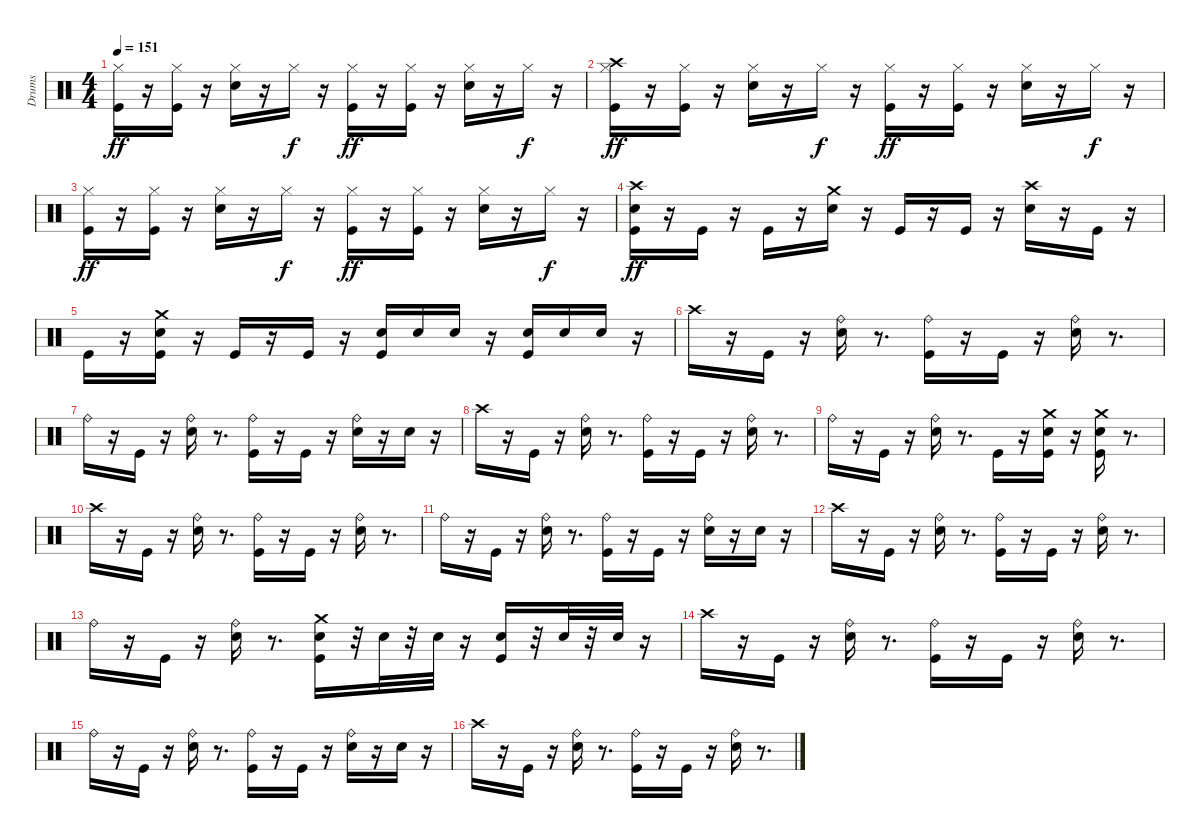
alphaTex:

\track ("Drums" "Drums") {instrument percussion}
\staff {score}
\articulation defaults
\ts (4 4)
\tempo 151
\clef neutral
\ks c
("Kick (hit)" "Hi-Hat (closed)").16{dy ff} r.16 ("Kick (hit)" "Hi-Hat (closed)").16 r.16 ("Snare (hit) 2" "Hi-Hat (closed)").16 r.16 "Hi-Hat (closed)".16{dy f} r.16 ("Kick (hit)" "Hi-Hat (closed)").16{dy ff} r.16 ("Kick (hit)" "Hi-Hat (closed)").16 r.16 ("Snare (hit) 2" "Hi-Hat (closed)").16 r.16 "Hi-Hat (closed)".16{dy f} r.16 |
("Kick (hit)" "Hi-Hat (closed)" "Crash high (hit)").16{dy ff} r.16 ("Kick (hit)" "Hi-Hat (closed)").16 r.16 ("Snare (hit) 2" "Hi-Hat (closed)").16 r.16 "Hi-Hat (closed)".16{dy f} r.16 ("Kick (hit)" "Hi-Hat (closed)").16{dy ff} r.16 ("Kick (hit)" "Hi-Hat (closed)").16 r.16 ("Snare (hit) 2" "Hi-Hat (closed)").16 r.16 "Hi-Hat (closed)".16{dy f} r.16 |
("Kick (hit)" "Hi-Hat (closed)").16{dy ff} r.16 ("Kick (hit)" "Hi-Hat (closed)").16 r.16 ("Snare (hit) 2" "Hi-Hat (closed)").16 r.16 "Hi-Hat (closed)".16{dy f} r.16 ("Kick (hit)" "Hi-Hat (closed)").16{dy ff} r.16 ("Kick (hit)" "Hi-Hat (closed)").16 r.16 ("Snare (hit) 2" "Hi-Hat (closed)").16 r.16 "Hi-Hat (closed)".16{dy f} r.16 |
("Kick (hit)" "Snare (hit) 2" "Crash high (hit)").16{dy ff} r.16 "Kick (hit)".16 r.16 "Kick (hit)".16 r.16 ("Snare (hit) 2" "Crash medium (hit)").16 r.16 "Kick (hit)".16 r.16 "Kick (hit)".16 r.16 ("Snare (hit) 2" "Crash high (hit)").16 r.16 "Kick (hit)".16 r.16 |
"Kick (hit)".16 r.16 ("Kick (hit)" "Snare (hit) 2" "Crash medium (hit)").16 r.16 "Kick (hit)".16 r.16 "Kick (hit)".16 r.16 ("Kick (hit)" "Snare (hit) 2").16 "Snare (hit) 2".16 "Snare (hit) 2".16 r.16 ("Kick (hit)" "Snare (hit) 2").16 "Snare (hit) 2".16 "Snare (hit) 2".16 r.16 |
"Crash high (hit)".16 r.16 "Kick (hit)".16 r.16 ("Snare (hit) 2" "Ride (bell)").16 r.8{d} ("Kick (hit)" "Ride (bell)").16 r.16 "Kick (hit)".16 r.16 ("Snare (hit) 2" "Ride (bell)").16 r.8{d} |
"Ride (bell)".16 r.16 "Kick (hit)".16 r.16 ("Snare (hit) 2" "Ride (bell)").16 r.8{d} ("Kick (hit)" "Ride (bell)").16 r.16 "Kick (hit)".16 r.16 ("Snare (hit) 2" "Ride (bell)").16 r.16 "Snare (hit) 2".16 r.16 |
"Crash high (hit)".16 r.16 "Kick (hit)".16 r.16 ("Snare (hit) 2" "Ride (bell)").16 r.8{d} ("Kick (hit)" "Ride (bell)").16 r.16 "Kick (hit)".16 r.16 ("Snare (hit) 2" "Ride (bell)").16 r.8{d} |
"Ride (bell)".16 r.16 "Kick (hit)".16 r.16 ("Snare (hit) 2" "Ride (bell)").16 r.8{d} "Kick (hit)".16 r.16 ("Kick (hit)" "Snare (hit) 2" "Crash medium (hit)").16 r.16 ("Kick (hit)" "Snare (hit) 2" "Crash medium (hit)").16 r.8{d} |
"Crash high (hit)".16 r.16 "Kick (hit)".16 r.16 ("Snare (hit) 2" "Ride (bell)").16 r.8{d} ("Kick (hit)" "Ride (bell)").16 r.16 "Kick (hit)".16 r.16 ("Snare (hit) 2" "Ride (bell)").16 r.8{d} |
"Ride (bell)".16 r.16 "Kick (hit)".16 r.16 ("Snare (hit) 2" "Ride (bell)").16 r.8{d} ("Kick (hit)" "Ride (bell)").16 r.16 "Kick (hit)".16 r.16 ("Snare (hit) 2" "Ride (bell)").16 r.16 "Snare (hit) 2".16 r.16 |
"Crash high (hit)".16 r.16 "Kick (hit)".16 r.16 ("Snare (hit) 2" "Ride (bell)").16 r.8{d} ("Kick (hit)" "Ride (bell)").16 r.16 "Kick (hit)".16 r.16 ("Snare (hit) 2" "Ride (bell)").16 r.8{d} |
"Ride (bell)".16 r.16 "Kick (hit)".16 r.16 ("Snare (hit) 2" "Ride (bell)").16 r.8{d} ("Kick (hit)" "Snare (hit) 2" "Crash medium (hit)").16 r.32 "Snare (hit) 2".32 r.32 "Snare (hit) 2".32 r.16 ("Kick (hit)" "Snare (hit) 2").16 r.32 "Snare (hit) 2".32 r.32 "Snare (hit) 2".32 r.16 |
"Crash high (hit)".16 r.16 "Kick (hit)".16 r.16 ("Snare (hit) 2" "Ride (bell)").16 r.8{d} ("Kick (hit)" "Ride (bell)").16 r.16 "Kick (hit)".16 r.16 ("Snare (hit) 2" "Ride (bell)").16 r.8{d} |
"Ride (bell)".16 r.16 "Kick (hit)".16 r.16 ("Snare (hit) 2" "Ride (bell)").16 r.8{d} ("Kick (hit)" "Ride (bell)").16 r.16 "Kick (hit)".16 r.16 ("Snare (hit) 2" "Ride (bell)").16 r.16 "Snare (hit) 2".16 r.16 |
"Crash high (hit)".16 r.16 "Kick (hit)".16 r.16 ("Snare (hit) 2" "Ride (bell)").16 r.8{d} ("Kick (hit)" "Ride (bell)").16 r.16 "Kick (hit)".16 r.16 ("Snare (hit) 2" "Ride (bell)").16 r.8{d}
